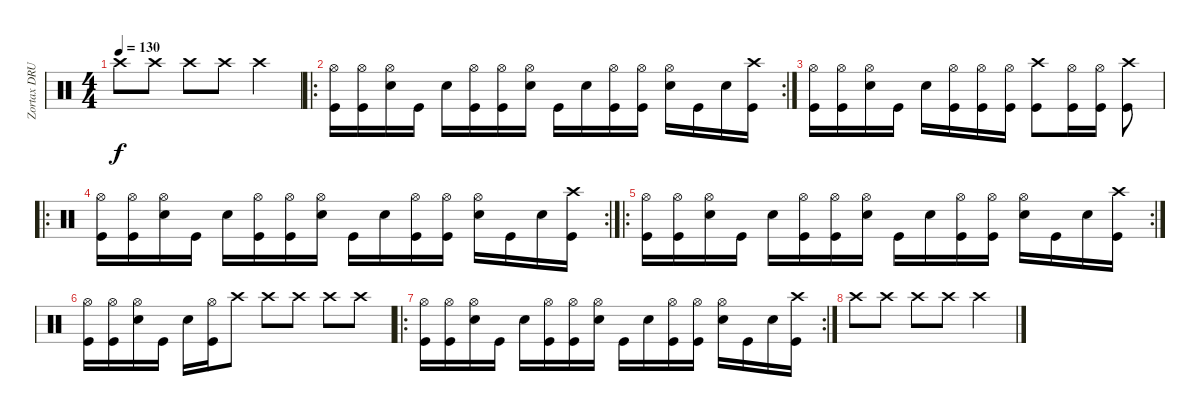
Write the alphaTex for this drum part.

\track ("Zortax DRUMS" "Zortax DRU") {instrument percussion}
\staff {score}
\articulation defaults
\ts (4 4)
\tempo 130
\clef neutral
\ks c "Crash high (hit)".8{dy f} "Crash high (hit)".8 "Crash high (hit)".8 "Crash high (hit)".8 "Crash high (hit)".4
|
\ro
\rc 2
("Kick (hit)" "Hi-Hat (open)").16 ("Kick (hit)" "Hi-Hat (open)").16 ("Hi-Hat (open)" "Snare (hit) 2").16 "Kick (hit)".16 "Snare (hit) 2".16 ("Kick (hit)" "Hi-Hat (open)").16 ("Kick (hit)" "Hi-Hat (open)").16 ("Hi-Hat (open)" "Snare (hit) 2").16 "Kick (hit)".16 "Snare (hit) 2".16 ("Kick (hit)" "Hi-Hat (open)").16 ("Kick (hit)" "Hi-Hat (open)").16 ("Hi-Hat (open)" "Snare (hit) 2").16 "Kick (hit)".16 "Snare (hit) 2".16 ("Kick (hit)" "Crash high (hit)").16 |
("Kick (hit)" "Hi-Hat (open)").16 ("Kick (hit)" "Hi-Hat (open)").16 ("Hi-Hat (open)" "Snare (hit) 2").16 "Kick (hit)".16 "Snare (hit) 2".16 ("Kick (hit)" "Hi-Hat (open)").16 ("Kick (hit)" "Hi-Hat (open)").16 ("Kick (hit)" "Hi-Hat (open)").16 ("Kick (hit)" "Crash high (hit)").8 ("Kick (hit)" "Hi-Hat (open)").16 ("Kick (hit)" "Hi-Hat (open)").16 ("Kick (hit)" "Crash high (hit)").8 |
\ro
\rc 2
("Kick (hit)" "Hi-Hat (open)").16 ("Kick (hit)" "Hi-Hat (open)").16 ("Hi-Hat (open)" "Snare (hit) 2").16 "Kick (hit)".16 "Snare (hit) 2".16 ("Kick (hit)" "Hi-Hat (open)").16 ("Kick (hit)" "Hi-Hat (open)").16 ("Hi-Hat (open)" "Snare (hit) 2").16 "Kick (hit)".16 "Snare (hit) 2".16 ("Kick (hit)" "Hi-Hat (open)").16 ("Kick (hit)" "Hi-Hat (open)").16 ("Hi-Hat (open)" "Snare (hit) 2").16 "Kick (hit)".16 "Snare (hit) 2".16 ("Kick (hit)" "Crash high (hit)").16 |
\ro
\rc 2
("Kick (hit)" "Hi-Hat (open)").16 ("Kick (hit)" "Hi-Hat (open)").16 ("Hi-Hat (open)" "Snare (hit) 2").16 "Kick (hit)".16 "Snare (hit) 2".16 ("Kick (hit)" "Hi-Hat (open)").16 ("Kick (hit)" "Hi-Hat (open)").16 ("Hi-Hat (open)" "Snare (hit) 2").16 "Kick (hit)".16 "Snare (hit) 2".16 ("Kick (hit)" "Hi-Hat (open)").16 ("Kick (hit)" "Hi-Hat (open)").16 ("Hi-Hat (open)" "Snare (hit) 2").16 "Kick (hit)".16 "Snare (hit) 2".16 ("Kick (hit)" "Crash high (hit)").16 |
("Kick (hit)" "Hi-Hat (open)").16 ("Kick (hit)" "Hi-Hat (open)").16 ("Hi-Hat (open)" "Snare (hit) 2").16 "Kick (hit)".16 "Snare (hit) 2".16 ("Kick (hit)" "Hi-Hat (open)").16 "Crash high (hit)".8 "Crash high (hit)".8 "Crash high (hit)".8 "Crash high (hit)".8 "Crash high (hit)".8 |
\ro
\rc 2
("Kick (hit)" "Hi-Hat (open)").16 ("Kick (hit)" "Hi-Hat (open)").16 ("Hi-Hat (open)" "Snare (hit) 2").16 "Kick (hit)".16 "Snare (hit) 2".16 ("Kick (hit)" "Hi-Hat (open)").16 ("Kick (hit)" "Hi-Hat (open)").16 ("Hi-Hat (open)" "Snare (hit) 2").16 "Kick (hit)".16 "Snare (hit) 2".16 ("Kick (hit)" "Hi-Hat (open)").16 ("Kick (hit)" "Hi-Hat (open)").16 ("Hi-Hat (open)" "Snare (hit) 2").16 "Kick (hit)".16 "Snare (hit) 2".16 ("Kick (hit)" "Crash high (hit)").16 |
"Crash high (hit)".8 "Crash high (hit)".8 "Crash high (hit)".8 "Crash high (hit)".8 "Crash high (hit)".4
